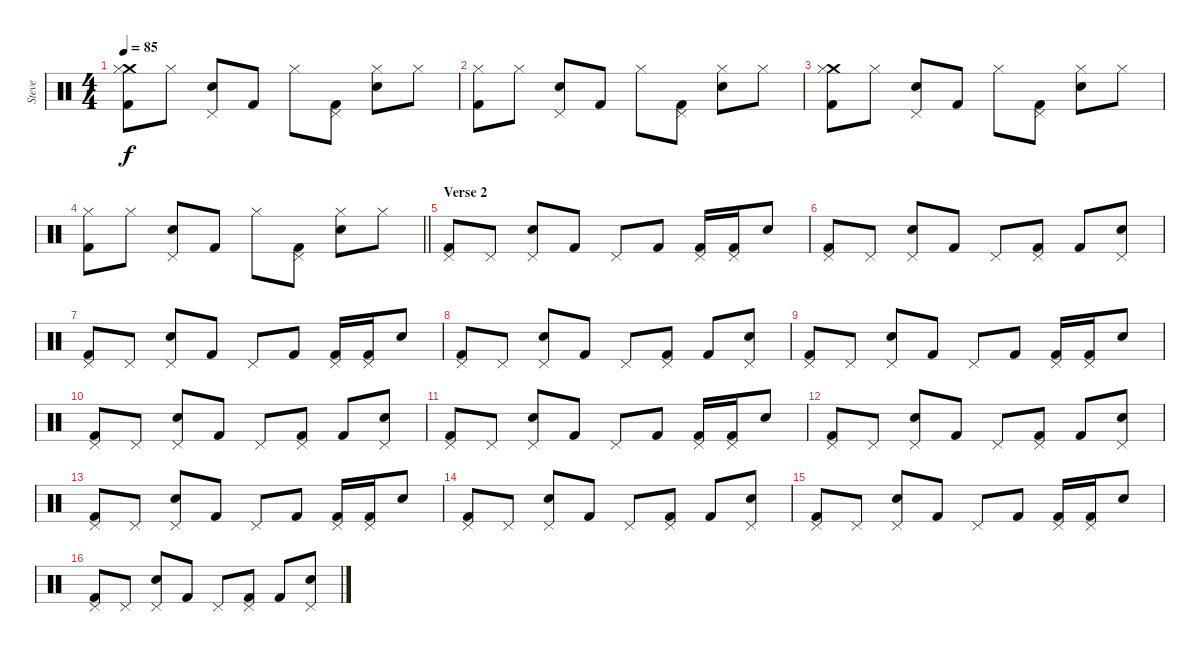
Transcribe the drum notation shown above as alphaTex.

\track ("Steve" "Steve") {instrument percussion}
\staff {score}
\articulation defaults
\ts (4 4)
\tempo 85
\clef neutral
\ks c
("Kick (hit) 2" "Crash medium (hit)" "Hi-Hat (closed)").8{dy f} "Hi-Hat (closed)".8 ("Electric Snare (hit)" "Pedal Hi-Hat (hit)").8 "Kick (hit) 2".8 "Hi-Hat (closed)".8 ("Kick (hit) 2" "Pedal Hi-Hat (hit)").8 ("Electric Snare (hit)" "Hi-Hat (closed)").8 "Hi-Hat (closed)".8 |
("Kick (hit) 2" "Hi-Hat (closed)").8 "Hi-Hat (closed)".8 ("Electric Snare (hit)" "Pedal Hi-Hat (hit)").8 "Kick (hit) 2".8 "Hi-Hat (closed)".8 ("Kick (hit) 2" "Pedal Hi-Hat (hit)").8 ("Electric Snare (hit)" "Hi-Hat (closed)").8 "Hi-Hat (closed)".8 |
("Kick (hit) 2" "Crash medium (hit)" "Hi-Hat (closed)").8 "Hi-Hat (closed)".8 ("Electric Snare (hit)" "Pedal Hi-Hat (hit)").8 "Kick (hit) 2".8 "Hi-Hat (closed)".8 ("Kick (hit) 2" "Pedal Hi-Hat (hit)").8 ("Electric Snare (hit)" "Hi-Hat (closed)").8 "Hi-Hat (closed)".8 |
\barLineRight lightlight
("Kick (hit) 2" "Hi-Hat (closed)").8 "Hi-Hat (closed)".8 ("Electric Snare (hit)" "Pedal Hi-Hat (hit)").8 "Kick (hit) 2".8 "Hi-Hat (closed)".8 ("Kick (hit) 2" "Pedal Hi-Hat (hit)").8 ("Electric Snare (hit)" "Hi-Hat (closed)").8 "Hi-Hat (closed)".8 |
\section ("" "Verse 2")
("Kick (hit) 2" "Pedal Hi-Hat (hit)").8 "Pedal Hi-Hat (hit)".8 ("Electric Snare (hit)" "Pedal Hi-Hat (hit)").8 "Kick (hit) 2".8 "Pedal Hi-Hat (hit)".8 "Kick (hit) 2".8 ("Kick (hit) 2" "Pedal Hi-Hat (hit)").16 ("Kick (hit) 2" "Pedal Hi-Hat (hit)").16 "Electric Snare (hit)".8 |
("Kick (hit) 2" "Pedal Hi-Hat (hit)").8 "Pedal Hi-Hat (hit)".8 ("Electric Snare (hit)" "Pedal Hi-Hat (hit)").8 "Kick (hit) 2".8 "Pedal Hi-Hat (hit)".8 ("Kick (hit) 2" "Pedal Hi-Hat (hit)").8 "Kick (hit) 2".8 ("Electric Snare (hit)" "Pedal Hi-Hat (hit)").8 |
("Kick (hit) 2" "Pedal Hi-Hat (hit)").8 "Pedal Hi-Hat (hit)".8 ("Electric Snare (hit)" "Pedal Hi-Hat (hit)").8 "Kick (hit) 2".8 "Pedal Hi-Hat (hit)".8 "Kick (hit) 2".8 ("Kick (hit) 2" "Pedal Hi-Hat (hit)").16 ("Kick (hit) 2" "Pedal Hi-Hat (hit)").16 "Electric Snare (hit)".8 |
("Kick (hit) 2" "Pedal Hi-Hat (hit)").8 "Pedal Hi-Hat (hit)".8 ("Electric Snare (hit)" "Pedal Hi-Hat (hit)").8 "Kick (hit) 2".8 "Pedal Hi-Hat (hit)".8 ("Kick (hit) 2" "Pedal Hi-Hat (hit)").8 "Kick (hit) 2".8 ("Electric Snare (hit)" "Pedal Hi-Hat (hit)").8 |
("Kick (hit) 2" "Pedal Hi-Hat (hit)").8 "Pedal Hi-Hat (hit)".8 ("Electric Snare (hit)" "Pedal Hi-Hat (hit)").8 "Kick (hit) 2".8 "Pedal Hi-Hat (hit)".8 "Kick (hit) 2".8 ("Kick (hit) 2" "Pedal Hi-Hat (hit)").16 ("Kick (hit) 2" "Pedal Hi-Hat (hit)").16 "Electric Snare (hit)".8 |
("Kick (hit) 2" "Pedal Hi-Hat (hit)").8 "Pedal Hi-Hat (hit)".8 ("Electric Snare (hit)" "Pedal Hi-Hat (hit)").8 "Kick (hit) 2".8 "Pedal Hi-Hat (hit)".8 ("Kick (hit) 2" "Pedal Hi-Hat (hit)").8 "Kick (hit) 2".8 ("Electric Snare (hit)" "Pedal Hi-Hat (hit)").8 |
("Kick (hit) 2" "Pedal Hi-Hat (hit)").8 "Pedal Hi-Hat (hit)".8 ("Electric Snare (hit)" "Pedal Hi-Hat (hit)").8 "Kick (hit) 2".8 "Pedal Hi-Hat (hit)".8 "Kick (hit) 2".8 ("Kick (hit) 2" "Pedal Hi-Hat (hit)").16 ("Kick (hit) 2" "Pedal Hi-Hat (hit)").16 "Electric Snare (hit)".8 |
("Kick (hit) 2" "Pedal Hi-Hat (hit)").8 "Pedal Hi-Hat (hit)".8 ("Electric Snare (hit)" "Pedal Hi-Hat (hit)").8 "Kick (hit) 2".8 "Pedal Hi-Hat (hit)".8 ("Kick (hit) 2" "Pedal Hi-Hat (hit)").8 "Kick (hit) 2".8 ("Electric Snare (hit)" "Pedal Hi-Hat (hit)").8 |
("Kick (hit) 2" "Pedal Hi-Hat (hit)").8 "Pedal Hi-Hat (hit)".8 ("Electric Snare (hit)" "Pedal Hi-Hat (hit)").8 "Kick (hit) 2".8 "Pedal Hi-Hat (hit)".8 "Kick (hit) 2".8 ("Kick (hit) 2" "Pedal Hi-Hat (hit)").16 ("Kick (hit) 2" "Pedal Hi-Hat (hit)").16 "Electric Snare (hit)".8 |
("Kick (hit) 2" "Pedal Hi-Hat (hit)").8 "Pedal Hi-Hat (hit)".8 ("Electric Snare (hit)" "Pedal Hi-Hat (hit)").8 "Kick (hit) 2".8 "Pedal Hi-Hat (hit)".8 ("Kick (hit) 2" "Pedal Hi-Hat (hit)").8 "Kick (hit) 2".8 ("Electric Snare (hit)" "Pedal Hi-Hat (hit)").8 |
("Kick (hit) 2" "Pedal Hi-Hat (hit)").8 "Pedal Hi-Hat (hit)".8 ("Electric Snare (hit)" "Pedal Hi-Hat (hit)").8 "Kick (hit) 2".8 "Pedal Hi-Hat (hit)".8 "Kick (hit) 2".8 ("Kick (hit) 2" "Pedal Hi-Hat (hit)").16 ("Kick (hit) 2" "Pedal Hi-Hat (hit)").16 "Electric Snare (hit)".8 |
("Kick (hit) 2" "Pedal Hi-Hat (hit)").8 "Pedal Hi-Hat (hit)".8 ("Electric Snare (hit)" "Pedal Hi-Hat (hit)").8 "Kick (hit) 2".8 "Pedal Hi-Hat (hit)".8 ("Kick (hit) 2" "Pedal Hi-Hat (hit)").8 "Kick (hit) 2".8 ("Electric Snare (hit)" "Pedal Hi-Hat (hit)").8
